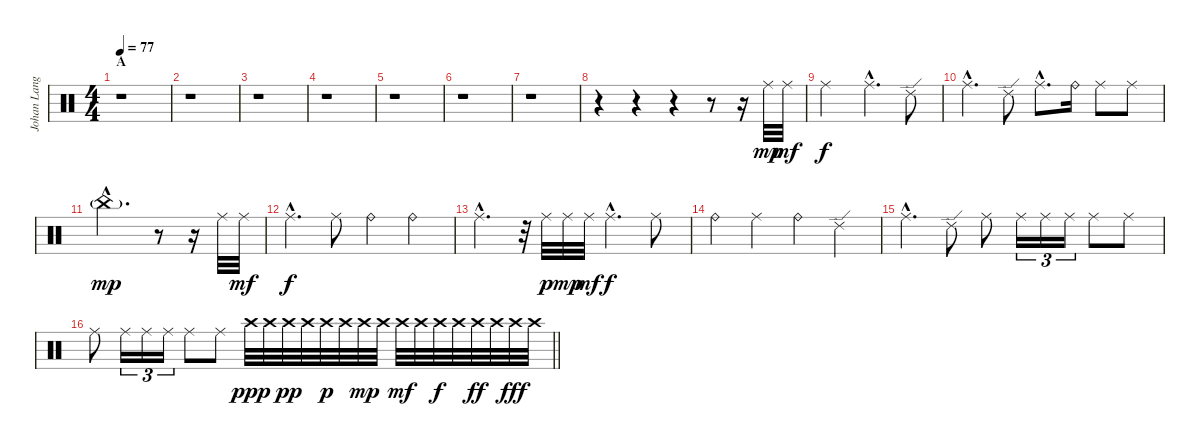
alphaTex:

\track ("Johan Langell - drums" "Johan Lang") {instrument percussion}
\staff {score}
\articulation defaults
\ts (4 4)
\section ("" "A")
\tempo 77
\clef neutral
\ks c
r.1{dy mp} |
r.1 |
r.1 |
r.1 |
r.1 |
r.1 |
r.1 |
r.4 r.4 r.4 r.8 r.16 "Ride (middle)".32 "Ride (middle)".32{dy mf} |
"Ride (middle)".2{dy f} "Ride (middle)"{hac}.4{d} "Ride (edge) 2".8 |
"Ride (middle)"{hac}.4{d} "Ride (edge) 2".8 "Ride (middle)"{hac}.8{d} "Ride (bell)".16 "Ride (middle)".8 "Ride (middle)".8 |
"China (hit)"{g hac}.2{d dy mp} r.8 r.16 "Ride (middle)".32 "Ride (middle)".32{dy mf} |
"Ride (middle)"{hac}.4{d dy f} "Ride (middle)".8 "Ride (bell)".4 "Ride (bell)".4 |
"Ride (middle)"{hac}.4{d} r.32 "Ride (middle)".32{dy p} "Ride (middle)".32{dy mp} "Ride (middle)".32{dy mf} "Ride (middle)"{hac}.4{d dy f} "Ride (middle)".8 |
"Ride (bell)".4 "Ride (middle)".4 "Ride (bell)".4 "Ride (edge) 2".4 |
"Ride (middle)"{hac}.4{d} "Ride (edge) 2".8 "Ride (middle)".8 "Ride (middle)".16{tu (3 2)} "Ride (middle)".16{tu (3 2)} "Ride (middle)".16{tu (3 2)} "Ride (middle)".8 "Ride (middle)".8 |
\barLineRight lightlight "Ride (middle)".8 "Ride (middle)".16{tu (3 2)} "Ride (middle)".16{tu (3 2)} "Ride (middle)".16{tu (3 2)} "Ride (middle)".8 "Ride (middle)".8 "Crash high (hit)".32{dy ppp} "Crash high (hit)".32 "Crash high (hit)".32{dy pp} "Crash high (hit)".32 "Crash high (hit)".32{dy p} "Crash high (hit)".32 "Crash high (hit)".32{dy mp} "Crash high (hit)".32 "Crash high (hit)".32{dy mf} "Crash high (hit)".32 "Crash high (hit)".32{dy f} "Crash high (hit)".32 "Crash high (hit)".32{dy ff} "Crash high (hit)".32 "Crash high (hit)".32{dy fff} "Crash high (hit)".32
